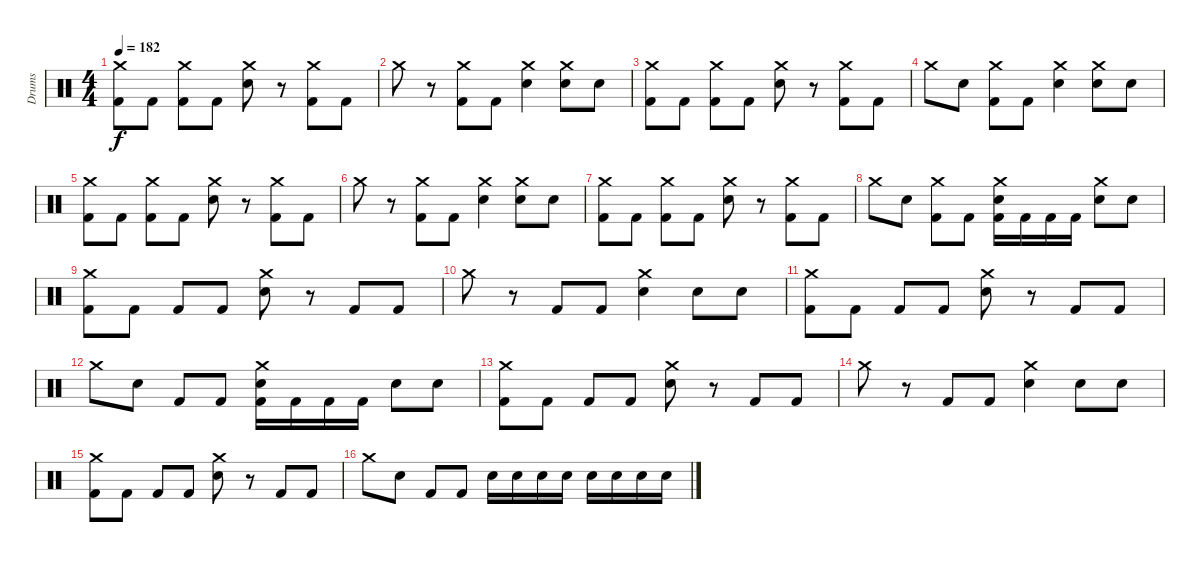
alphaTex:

\track ("Drums" "Drums") {instrument percussion}
\staff
\articulation defaults
\ts (4 4)
\tempo 182
\clef neutral
\ks c
("Crash medium (hit)" "Kick (hit) 2").8{dy f} "Kick (hit) 2".8 ("Crash medium (hit)" "Kick (hit) 2").8 "Kick (hit) 2".8 ("Crash medium (hit)" "Electric Snare (hit)").8 r.8 ("Crash medium (hit)" "Kick (hit) 2").8 "Kick (hit) 2".8 |
"Crash medium (hit)".8 r.8 ("Crash medium (hit)" "Kick (hit) 2").8 "Kick (hit) 2".8 ("Crash medium (hit)" "Electric Snare (hit)").4 ("Crash medium (hit)" "Electric Snare (hit)").8 "Electric Snare (hit)".8 |
("Crash medium (hit)" "Kick (hit) 2").8 "Kick (hit) 2".8 ("Crash medium (hit)" "Kick (hit) 2").8 "Kick (hit) 2".8 ("Crash medium (hit)" "Electric Snare (hit)").8 r.8 ("Crash medium (hit)" "Kick (hit) 2").8 "Kick (hit) 2".8 |
"Crash medium (hit)".8 "Electric Snare (hit)".8 ("Crash medium (hit)" "Kick (hit) 2").8 "Kick (hit) 2".8 ("Crash medium (hit)" "Electric Snare (hit)").4 ("Crash medium (hit)" "Electric Snare (hit)").8 "Electric Snare (hit)".8 |
("Crash medium (hit)" "Kick (hit) 2").8 "Kick (hit) 2".8 ("Crash medium (hit)" "Kick (hit) 2").8 "Kick (hit) 2".8 ("Crash medium (hit)" "Electric Snare (hit)").8 r.8 ("Crash medium (hit)" "Kick (hit) 2").8 "Kick (hit) 2".8 |
"Crash medium (hit)".8 r.8 ("Crash medium (hit)" "Kick (hit) 2").8 "Kick (hit) 2".8 ("Crash medium (hit)" "Electric Snare (hit)").4 ("Crash medium (hit)" "Electric Snare (hit)").8 "Electric Snare (hit)".8 |
("Crash medium (hit)" "Kick (hit) 2").8 "Kick (hit) 2".8 ("Crash medium (hit)" "Kick (hit) 2").8 "Kick (hit) 2".8 ("Crash medium (hit)" "Electric Snare (hit)").8 r.8 ("Crash medium (hit)" "Kick (hit) 2").8 "Kick (hit) 2".8 |
"Crash medium (hit)".8 "Electric Snare (hit)".8 ("Crash medium (hit)" "Kick (hit) 2").8 "Kick (hit) 2".8 ("Crash medium (hit)" "Electric Snare (hit)" "Kick (hit) 2").16 "Kick (hit) 2".16 "Kick (hit) 2".16 "Kick (hit) 2".16 ("Crash medium (hit)" "Electric Snare (hit)").8 "Electric Snare (hit)".8 |
("Crash medium (hit)" "Kick (hit) 2").8 "Kick (hit) 2".8 "Kick (hit) 2".8 "Kick (hit) 2".8 ("Crash medium (hit)" "Electric Snare (hit)").8 r.8 "Kick (hit) 2".8 "Kick (hit) 2".8 |
"Crash medium (hit)".8 r.8 "Kick (hit) 2".8 "Kick (hit) 2".8 ("Crash medium (hit)" "Electric Snare (hit)").4 "Electric Snare (hit)".8 "Electric Snare (hit)".8 |
("Crash medium (hit)" "Kick (hit) 2").8 "Kick (hit) 2".8 "Kick (hit) 2".8 "Kick (hit) 2".8 ("Crash medium (hit)" "Electric Snare (hit)").8 r.8 "Kick (hit) 2".8 "Kick (hit) 2".8 |
"Crash medium (hit)".8 "Electric Snare (hit)".8 "Kick (hit) 2".8 "Kick (hit) 2".8 ("Crash medium (hit)" "Electric Snare (hit)" "Kick (hit) 2").16 "Kick (hit) 2".16 "Kick (hit) 2".16 "Kick (hit) 2".16 "Electric Snare (hit)".8 "Electric Snare (hit)".8 |
("Crash medium (hit)" "Kick (hit) 2").8 "Kick (hit) 2".8 "Kick (hit) 2".8 "Kick (hit) 2".8 ("Crash medium (hit)" "Electric Snare (hit)").8 r.8 "Kick (hit) 2".8 "Kick (hit) 2".8 |
"Crash medium (hit)".8 r.8 "Kick (hit) 2".8 "Kick (hit) 2".8 ("Crash medium (hit)" "Electric Snare (hit)").4 "Electric Snare (hit)".8 "Electric Snare (hit)".8 |
("Crash medium (hit)" "Kick (hit) 2").8 "Kick (hit) 2".8 "Kick (hit) 2".8 "Kick (hit) 2".8 ("Crash medium (hit)" "Electric Snare (hit)").8 r.8 "Kick (hit) 2".8 "Kick (hit) 2".8 |
"Crash medium (hit)".8 "Electric Snare (hit)".8 "Kick (hit) 2".8 "Kick (hit) 2".8 "Electric Snare (hit)".16 "Electric Snare (hit)".16 "Electric Snare (hit)".16 "Electric Snare (hit)".16 "Electric Snare (hit)".16 "Electric Snare (hit)".16 "Electric Snare (hit)".16 "Electric Snare (hit)".16
